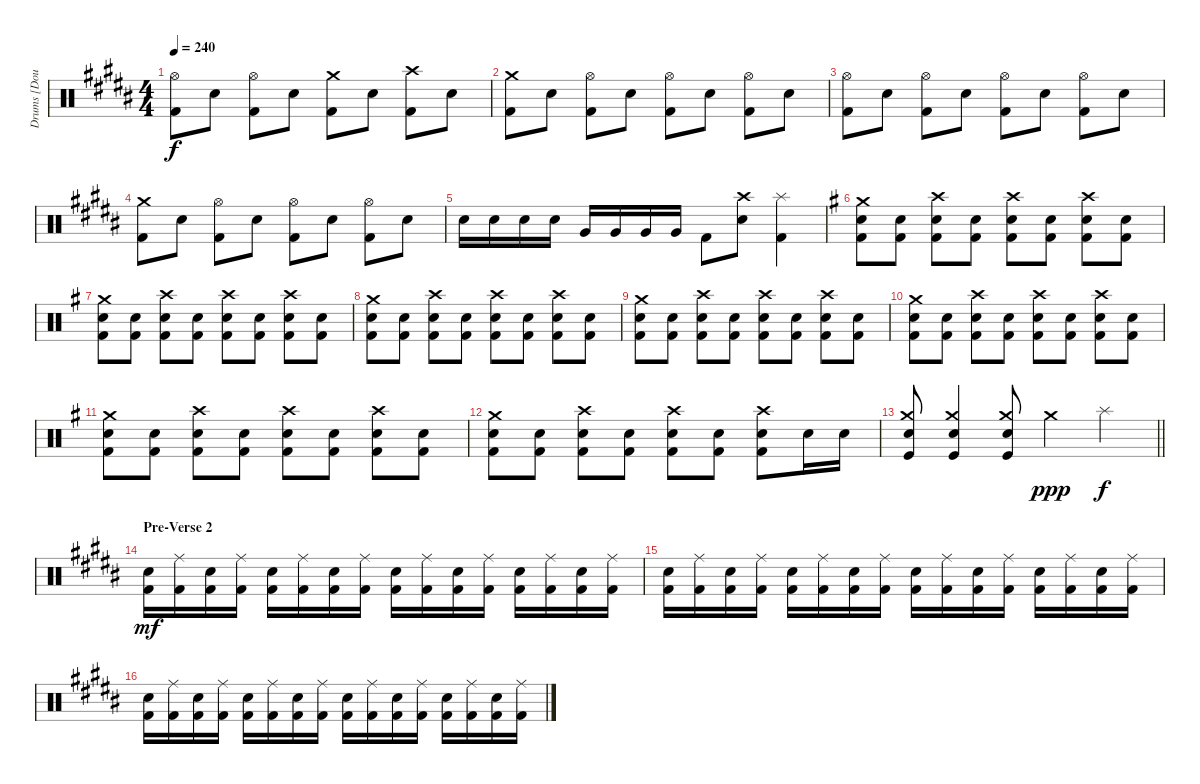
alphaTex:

\track ("Drums [Doug Anderson]" "Drums [Dou") {instrument percussion}
\staff {score}
\articulation defaults
\ts (4 4)
\tempo 240
\clef neutral
\ks b
("Hi-Hat (open)" "Kick (hit) 2").8{dy f} "Electric Snare (hit)".8 ("Hi-Hat (open)" "Kick (hit) 2").8 "Electric Snare (hit)".8 ("Crash medium (hit)" "Kick (hit) 2").8 "Electric Snare (hit)".8 ("Crash high (hit)" "Kick (hit) 2").8 "Electric Snare (hit)".8 |
("Crash medium (hit)" "Kick (hit) 2").8 "Electric Snare (hit)".8 ("Hi-Hat (open)" "Kick (hit) 2").8 "Electric Snare (hit)".8 ("Hi-Hat (open)" "Kick (hit) 2").8 "Electric Snare (hit)".8 ("Hi-Hat (open)" "Kick (hit) 2").8 "Electric Snare (hit)".8 |
("Hi-Hat (open)" "Kick (hit) 2").8 "Electric Snare (hit)".8 ("Hi-Hat (open)" "Kick (hit) 2").8 "Electric Snare (hit)".8 ("Hi-Hat (open)" "Kick (hit) 2").8 "Electric Snare (hit)".8 ("Hi-Hat (open)" "Kick (hit) 2").8 "Electric Snare (hit)".8 |
("Crash medium (hit)" "Kick (hit) 2").8 "Electric Snare (hit)".8 ("Hi-Hat (open)" "Kick (hit) 2").8 "Electric Snare (hit)".8 ("Hi-Hat (open)" "Kick (hit) 2").8 "Electric Snare (hit)".8 ("Hi-Hat (open)" "Kick (hit) 2").8 "Electric Snare (hit)".8 |
"Electric Snare (hit)".16 "Electric Snare (hit)".16 "Electric Snare (hit)".16 "Electric Snare (hit)".16 "Very Low Tom (hit)".16 "Very Low Tom (hit)".16 "Very Low Tom (hit)".16 "Very Low Tom (hit)".16 "Kick (hit) 2".8 ("Crash high (hit)" "Electric Snare (hit)").8 ("Splash (hit)" "Kick (hit) 2").4 |
\ks eminor
("Crash medium (hit)" "Electric Snare (hit)" "Kick (hit) 2").8 ("Electric Snare (hit)" "Kick (hit) 2").8 ("Crash high (hit)" "Electric Snare (hit)" "Kick (hit) 2").8 ("Electric Snare (hit)" "Kick (hit) 2").8 ("Crash high (hit)" "Electric Snare (hit)" "Kick (hit) 2").8 ("Electric Snare (hit)" "Kick (hit) 2").8 ("Crash high (hit)" "Electric Snare (hit)" "Kick (hit) 2").8 ("Electric Snare (hit)" "Kick (hit) 2").8 |
("Crash medium (hit)" "Electric Snare (hit)" "Kick (hit) 2").8 ("Electric Snare (hit)" "Kick (hit) 2").8 ("Crash high (hit)" "Electric Snare (hit)" "Kick (hit) 2").8 ("Electric Snare (hit)" "Kick (hit) 2").8 ("Crash high (hit)" "Electric Snare (hit)" "Kick (hit) 2").8 ("Electric Snare (hit)" "Kick (hit) 2").8 ("Crash high (hit)" "Electric Snare (hit)" "Kick (hit) 2").8 ("Electric Snare (hit)" "Kick (hit) 2").8 |
("Crash medium (hit)" "Electric Snare (hit)" "Kick (hit) 2").8 ("Electric Snare (hit)" "Kick (hit) 2").8 ("Crash high (hit)" "Electric Snare (hit)" "Kick (hit) 2").8 ("Electric Snare (hit)" "Kick (hit) 2").8 ("Crash high (hit)" "Electric Snare (hit)" "Kick (hit) 2").8 ("Electric Snare (hit)" "Kick (hit) 2").8 ("Crash high (hit)" "Electric Snare (hit)" "Kick (hit) 2").8 ("Electric Snare (hit)" "Kick (hit) 2").8 |
("Crash medium (hit)" "Electric Snare (hit)" "Kick (hit) 2").8 ("Electric Snare (hit)" "Kick (hit) 2").8 ("Crash high (hit)" "Electric Snare (hit)" "Kick (hit) 2").8 ("Electric Snare (hit)" "Kick (hit) 2").8 ("Crash high (hit)" "Electric Snare (hit)" "Kick (hit) 2").8 ("Electric Snare (hit)" "Kick (hit) 2").8 ("Crash high (hit)" "Electric Snare (hit)" "Kick (hit) 2").8 ("Electric Snare (hit)" "Kick (hit) 2").8 |
("Crash medium (hit)" "Electric Snare (hit)" "Kick (hit) 2").8 ("Electric Snare (hit)" "Kick (hit) 2").8 ("Crash high (hit)" "Electric Snare (hit)" "Kick (hit) 2").8 ("Electric Snare (hit)" "Kick (hit) 2").8 ("Crash high (hit)" "Electric Snare (hit)" "Kick (hit) 2").8 ("Electric Snare (hit)" "Kick (hit) 2").8 ("Crash high (hit)" "Electric Snare (hit)" "Kick (hit) 2").8 ("Electric Snare (hit)" "Kick (hit) 2").8 |
("Crash medium (hit)" "Electric Snare (hit)" "Kick (hit) 2").8 ("Electric Snare (hit)" "Kick (hit) 2").8 ("Crash high (hit)" "Electric Snare (hit)" "Kick (hit) 2").8 ("Electric Snare (hit)" "Kick (hit) 2").8 ("Crash high (hit)" "Electric Snare (hit)" "Kick (hit) 2").8 ("Electric Snare (hit)" "Kick (hit) 2").8 ("Crash high (hit)" "Electric Snare (hit)" "Kick (hit) 2").8 ("Electric Snare (hit)" "Kick (hit) 2").8 |
("Crash medium (hit)" "Electric Snare (hit)" "Kick (hit) 2").8 ("Electric Snare (hit)" "Kick (hit) 2").8 ("Crash high (hit)" "Electric Snare (hit)" "Kick (hit) 2").8 ("Electric Snare (hit)" "Kick (hit) 2").8 ("Crash high (hit)" "Electric Snare (hit)" "Kick (hit) 2").8 ("Electric Snare (hit)" "Kick (hit) 2").8 ("Crash high (hit)" "Electric Snare (hit)" "Kick (hit) 2").8 "Electric Snare (hit)".16 "Electric Snare (hit)".16 |
\barLineRight lightlight
("Crash medium (hit)" "Electric Snare (hit)" "Kick (hit)").8 ("Crash medium (hit)" "Electric Snare (hit)" "Kick (hit)").4 ("Crash medium (hit)" "Electric Snare (hit)" "Kick (hit)").8 "Crash medium (hit)".4{dy ppp} "Splash (hit)".4{dy f} |
\section ("" "Pre-Verse 2")
\ks b
("Electric Snare (hit)" "Kick (hit) 2").16{dy mf} ("Ride (middle)" "Kick (hit) 2").16 ("Electric Snare (hit)" "Kick (hit) 2").16 ("Ride (middle)" "Kick (hit) 2").16 ("Electric Snare (hit)" "Kick (hit) 2").16 ("Ride (middle)" "Kick (hit) 2").16 ("Electric Snare (hit)" "Kick (hit) 2").16 ("Ride (middle)" "Kick (hit) 2").16 ("Electric Snare (hit)" "Kick (hit) 2").16 ("Ride (middle)" "Kick (hit) 2").16 ("Electric Snare (hit)" "Kick (hit) 2").16 ("Ride (middle)" "Kick (hit) 2").16 ("Electric Snare (hit)" "Kick (hit) 2").16 ("Ride (middle)" "Kick (hit) 2").16 ("Electric Snare (hit)" "Kick (hit) 2").16 ("Ride (middle)" "Kick (hit) 2").16 |
("Electric Snare (hit)" "Kick (hit) 2").16 ("Ride (middle)" "Kick (hit) 2").16 ("Electric Snare (hit)" "Kick (hit) 2").16 ("Ride (middle)" "Kick (hit) 2").16 ("Electric Snare (hit)" "Kick (hit) 2").16 ("Ride (middle)" "Kick (hit) 2").16 ("Electric Snare (hit)" "Kick (hit) 2").16 ("Ride (middle)" "Kick (hit) 2").16 ("Electric Snare (hit)" "Kick (hit) 2").16 ("Ride (middle)" "Kick (hit) 2").16 ("Electric Snare (hit)" "Kick (hit) 2").16 ("Ride (middle)" "Kick (hit) 2").16 ("Electric Snare (hit)" "Kick (hit) 2").16 ("Ride (middle)" "Kick (hit) 2").16 ("Electric Snare (hit)" "Kick (hit) 2").16 ("Ride (middle)" "Kick (hit) 2").16 |
("Electric Snare (hit)" "Kick (hit) 2").16 ("Ride (middle)" "Kick (hit) 2").16 ("Electric Snare (hit)" "Kick (hit) 2").16 ("Ride (middle)" "Kick (hit) 2").16 ("Electric Snare (hit)" "Kick (hit) 2").16 ("Ride (middle)" "Kick (hit) 2").16 ("Electric Snare (hit)" "Kick (hit) 2").16 ("Ride (middle)" "Kick (hit) 2").16 ("Electric Snare (hit)" "Kick (hit) 2").16 ("Ride (middle)" "Kick (hit) 2").16 ("Electric Snare (hit)" "Kick (hit) 2").16 ("Ride (middle)" "Kick (hit) 2").16 ("Electric Snare (hit)" "Kick (hit) 2").16 ("Ride (middle)" "Kick (hit) 2").16 ("Electric Snare (hit)" "Kick (hit) 2").16 ("Ride (middle)" "Kick (hit) 2").16
